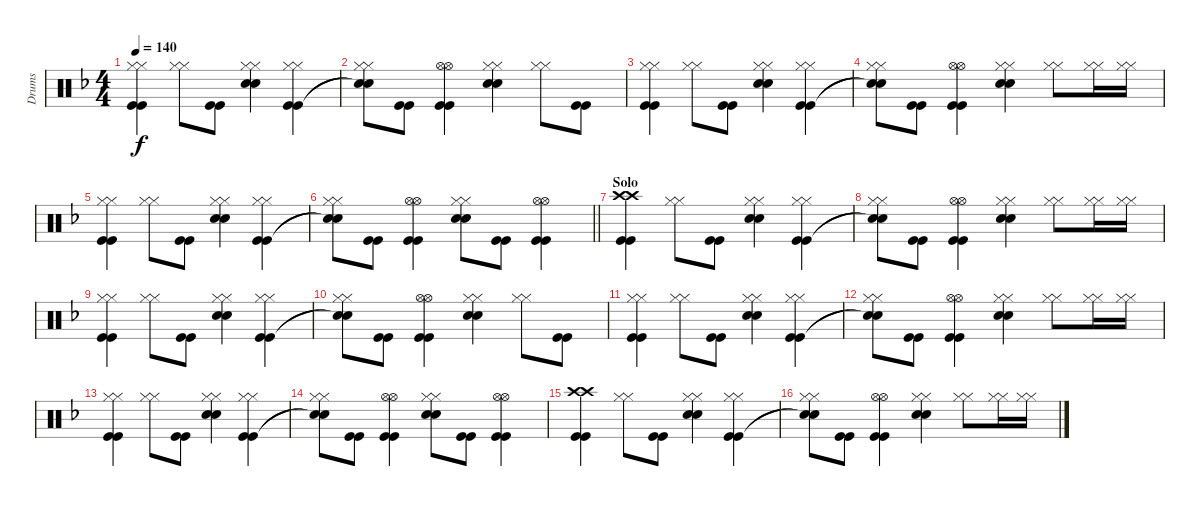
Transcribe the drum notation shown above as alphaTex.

\track ("Drums" "Drums") {instrument percussion}
\staff {score}
\articulation defaults
\ts (4 4)
\tempo 140
\clef neutral
\ks f
("Hi-Hat (closed)" "Hi-Hat (closed)" "Kick (hit)" "Kick (hit)").4{dy f} ("Hi-Hat (closed)" "Hi-Hat (closed)").8 ("Kick (hit)" "Kick (hit)").8 ("Hi-Hat (closed)" "Hi-Hat (closed)" "Snare (hit) 2" "Snare (hit) 2").4 ("Hi-Hat (closed)" "Hi-Hat (closed)" "Kick (hit)" "Kick (hit)").4 |
("Hi-Hat (closed)" "Hi-Hat (closed)" "Snare (hit)"{t} "Snare (hit)"{t}).8 ("Kick (hit)" "Kick (hit)").8 ("Hi-Hat (open)" "Hi-Hat (open)" "Kick (hit)" "Kick (hit)").4 ("Hi-Hat (closed)" "Hi-Hat (closed)" "Snare (hit) 2" "Snare (hit) 2").4 ("Hi-Hat (closed)" "Hi-Hat (closed)").8 ("Kick (hit)" "Kick (hit)").8 |
("Hi-Hat (closed)" "Hi-Hat (closed)" "Kick (hit)" "Kick (hit)").4 ("Hi-Hat (closed)" "Hi-Hat (closed)").8 ("Kick (hit)" "Kick (hit)").8 ("Hi-Hat (closed)" "Hi-Hat (closed)" "Snare (hit) 2" "Snare (hit) 2").4 ("Hi-Hat (closed)" "Hi-Hat (closed)" "Kick (hit)" "Kick (hit)").4 |
("Hi-Hat (closed)" "Hi-Hat (closed)" "Snare (hit)"{t} "Snare (hit)"{t}).8 ("Kick (hit)" "Kick (hit)").8 ("Hi-Hat (open)" "Hi-Hat (open)" "Kick (hit)" "Kick (hit)").4 ("Hi-Hat (closed)" "Hi-Hat (closed)" "Snare (hit) 2" "Snare (hit) 2").4 ("Hi-Hat (closed)" "Hi-Hat (closed)").8 ("Hi-Hat (closed)" "Hi-Hat (closed)").16 ("Hi-Hat (closed)" "Hi-Hat (closed)").16 |
("Hi-Hat (closed)" "Hi-Hat (closed)" "Kick (hit)" "Kick (hit)").4 ("Hi-Hat (closed)" "Hi-Hat (closed)").8 ("Kick (hit)" "Kick (hit)").8 ("Hi-Hat (closed)" "Hi-Hat (closed)" "Snare (hit) 2" "Snare (hit) 2").4 ("Hi-Hat (closed)" "Hi-Hat (closed)" "Kick (hit)" "Kick (hit)").4 |
\barLineRight lightlight
("Hi-Hat (closed)" "Hi-Hat (closed)" "Snare (hit)"{t} "Snare (hit)"{t}).8 ("Kick (hit)" "Kick (hit)").8 ("Hi-Hat (open)" "Hi-Hat (open)" "Kick (hit)" "Kick (hit)").4 ("Hi-Hat (closed)" "Hi-Hat (closed)" "Snare (hit) 2" "Snare (hit) 2").8 ("Kick (hit)" "Kick (hit)").8 ("Hi-Hat (open)" "Hi-Hat (open)" "Kick (hit)" "Kick (hit)").4 |
\section ("" "Solo")
("Crash high (hit)" "Crash high (hit)" "Kick (hit)" "Kick (hit)").4 ("Hi-Hat (closed)" "Hi-Hat (closed)").8 ("Kick (hit)" "Kick (hit)").8 ("Hi-Hat (closed)" "Hi-Hat (closed)" "Snare (hit) 2" "Snare (hit) 2").4 ("Hi-Hat (closed)" "Hi-Hat (closed)" "Kick (hit)" "Kick (hit)").4 |
("Hi-Hat (closed)" "Hi-Hat (closed)" "Snare (hit)"{t} "Snare (hit)"{t}).8 ("Kick (hit)" "Kick (hit)").8 ("Hi-Hat (open)" "Hi-Hat (open)" "Kick (hit)" "Kick (hit)").4 ("Hi-Hat (closed)" "Hi-Hat (closed)" "Snare (hit) 2" "Snare (hit) 2").4 ("Hi-Hat (closed)" "Hi-Hat (closed)").8 ("Hi-Hat (closed)" "Hi-Hat (closed)").16 ("Hi-Hat (closed)" "Hi-Hat (closed)").16 |
("Hi-Hat (closed)" "Hi-Hat (closed)" "Kick (hit)" "Kick (hit)").4 ("Hi-Hat (closed)" "Hi-Hat (closed)").8 ("Kick (hit)" "Kick (hit)").8 ("Hi-Hat (closed)" "Hi-Hat (closed)" "Snare (hit) 2" "Snare (hit) 2").4 ("Hi-Hat (closed)" "Hi-Hat (closed)" "Kick (hit)" "Kick (hit)").4 |
("Hi-Hat (closed)" "Hi-Hat (closed)" "Snare (hit)"{t} "Snare (hit)"{t}).8 ("Kick (hit)" "Kick (hit)").8 ("Hi-Hat (open)" "Hi-Hat (open)" "Kick (hit)" "Kick (hit)").4 ("Hi-Hat (closed)" "Hi-Hat (closed)" "Snare (hit) 2" "Snare (hit) 2").4 ("Hi-Hat (closed)" "Hi-Hat (closed)").8 ("Kick (hit)" "Kick (hit)").8 |
("Hi-Hat (closed)" "Hi-Hat (closed)" "Kick (hit)" "Kick (hit)").4 ("Hi-Hat (closed)" "Hi-Hat (closed)").8 ("Kick (hit)" "Kick (hit)").8 ("Hi-Hat (closed)" "Hi-Hat (closed)" "Snare (hit) 2" "Snare (hit) 2").4 ("Hi-Hat (closed)" "Hi-Hat (closed)" "Kick (hit)" "Kick (hit)").4 |
("Hi-Hat (closed)" "Hi-Hat (closed)" "Snare (hit)"{t} "Snare (hit)"{t}).8 ("Kick (hit)" "Kick (hit)").8 ("Hi-Hat (open)" "Hi-Hat (open)" "Kick (hit)" "Kick (hit)").4 ("Hi-Hat (closed)" "Hi-Hat (closed)" "Snare (hit) 2" "Snare (hit) 2").4 ("Hi-Hat (closed)" "Hi-Hat (closed)").8 ("Hi-Hat (closed)" "Hi-Hat (closed)").16 ("Hi-Hat (closed)" "Hi-Hat (closed)").16 |
("Hi-Hat (closed)" "Hi-Hat (closed)" "Kick (hit)" "Kick (hit)").4 ("Hi-Hat (closed)" "Hi-Hat (closed)").8 ("Kick (hit)" "Kick (hit)").8 ("Hi-Hat (closed)" "Hi-Hat (closed)" "Snare (hit) 2" "Snare (hit) 2").4 ("Hi-Hat (closed)" "Hi-Hat (closed)" "Kick (hit)" "Kick (hit)").4 |
("Hi-Hat (closed)" "Hi-Hat (closed)" "Snare (hit)"{t} "Snare (hit)"{t}).8 ("Kick (hit)" "Kick (hit)").8 ("Hi-Hat (open)" "Hi-Hat (open)" "Kick (hit)" "Kick (hit)").4 ("Hi-Hat (closed)" "Hi-Hat (closed)" "Snare (hit) 2" "Snare (hit) 2").8 ("Kick (hit)" "Kick (hit)").8 ("Hi-Hat (open)" "Hi-Hat (open)" "Kick (hit)" "Kick (hit)").4 |
("Crash high (hit)" "Crash high (hit)" "Kick (hit)" "Kick (hit)").4 ("Hi-Hat (closed)" "Hi-Hat (closed)").8 ("Kick (hit)" "Kick (hit)").8 ("Hi-Hat (closed)" "Hi-Hat (closed)" "Snare (hit) 2" "Snare (hit) 2").4 ("Hi-Hat (closed)" "Hi-Hat (closed)" "Kick (hit)" "Kick (hit)").4 |
("Hi-Hat (closed)" "Hi-Hat (closed)" "Snare (hit)"{t} "Snare (hit)"{t}).8 ("Kick (hit)" "Kick (hit)").8 ("Hi-Hat (open)" "Hi-Hat (open)" "Kick (hit)" "Kick (hit)").4 ("Hi-Hat (closed)" "Hi-Hat (closed)" "Snare (hit) 2" "Snare (hit) 2").4 ("Hi-Hat (closed)" "Hi-Hat (closed)").8 ("Hi-Hat (closed)" "Hi-Hat (closed)").16 ("Hi-Hat (closed)" "Hi-Hat (closed)").16
